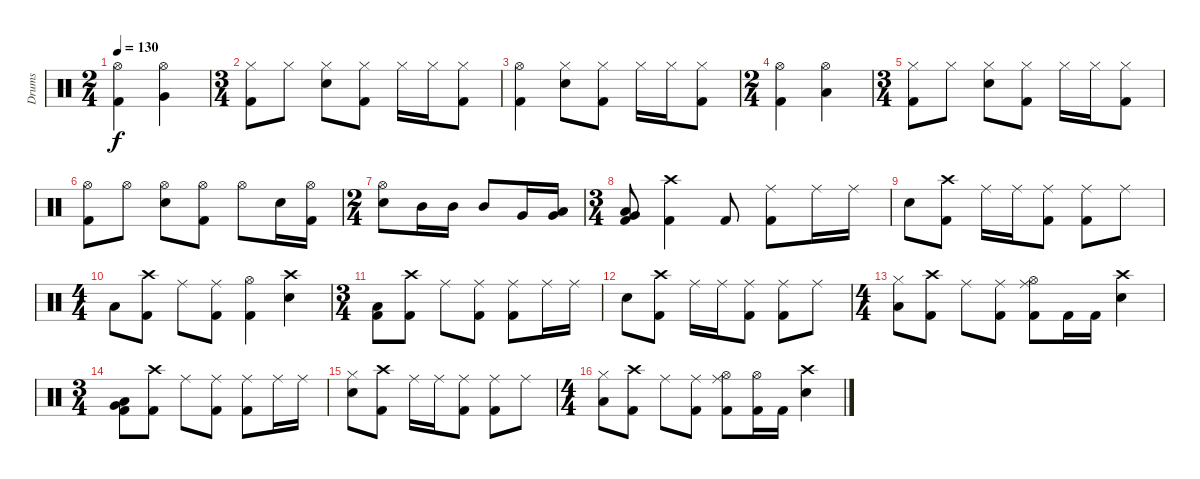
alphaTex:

\track ("Drums" "Drums") {instrument percussion}
\staff {score}
\articulation defaults
\ts (2 4)
\tempo 130
\clef neutral
\ks c
("Hi-Hat (open)" "Kick (hit) 2").4{dy f} ("Hi-Hat (open)" "Very Low Tom (hit)").4 |
\ts (3 4)
("Hi-Hat (closed)" "Kick (hit) 2").8 "Hi-Hat (closed)".8 ("Hi-Hat (closed)" "Snare (hit) 2").8 ("Hi-Hat (closed)" "Kick (hit) 2").8 "Hi-Hat (closed)".16 "Hi-Hat (closed)".16 ("Hi-Hat (closed)" "Kick (hit) 2").8 |
("Hi-Hat (open)" "Kick (hit) 2").4 ("Hi-Hat (closed)" "Snare (hit) 2").8 ("Hi-Hat (closed)" "Kick (hit) 2").8 "Hi-Hat (closed)".16 "Hi-Hat (closed)".16 ("Hi-Hat (closed)" "Kick (hit) 2").8 |
\ts (2 4)
("Hi-Hat (open)" "Kick (hit) 2").4 ("Hi-Hat (open)" "Low Floor Tom (hit)").4 |
\ts (3 4)
("Hi-Hat (closed)" "Kick (hit) 2").8 "Hi-Hat (closed)".8 ("Hi-Hat (closed)" "Snare (hit) 2").8 ("Hi-Hat (closed)" "Kick (hit) 2").8 "Hi-Hat (closed)".16 "Hi-Hat (closed)".16 ("Hi-Hat (closed)" "Kick (hit) 2").8 |
("Hi-Hat (open)" "Kick (hit) 2").8 "Hi-Hat (open)".8 ("Hi-Hat (open)" "Snare (hit) 2").8 ("Hi-Hat (open)" "Kick (hit) 2").8 "Hi-Hat (open)".8 "Snare (hit) 2".16 ("Hi-Hat (open)" "Kick (hit) 2").16 |
\ts (2 4)
("Hi-Hat (open)" "Snare (hit) 2").8 "Mid Tom (hit)".16 "Mid Tom (hit)".16 "Mid Tom (hit)".8 "Very Low Tom (hit)".16 ("Low Floor Tom (hit)" "Very Low Tom (hit)").16 |
\ts (3 4)
("Low Floor Tom (hit)" "Very Low Tom (hit)" "Kick (hit) 2").8 ("Crash high (hit)" "Kick (hit) 2").4 "Kick (hit) 2".8 ("Ride (middle)" "Kick (hit) 2").8 "Ride (middle)".16 "Ride (middle)".16 |
"Snare (hit) 2".8 ("Crash high (hit)" "Kick (hit) 2").8 "Ride (middle)".16 "Ride (middle)".16 ("Ride (middle)" "Kick (hit) 2").8 ("Ride (middle)" "Kick (hit) 2").8 "Ride (middle)".8 |
\ts (4 4)
"Low Floor Tom (hit)".8 ("Crash high (hit)" "Kick (hit) 2").8 "Ride (middle)".8 ("Ride (middle)" "Kick (hit) 2").8 ("Hi-Hat (open)" "Kick (hit) 2").4 ("Crash high (hit)" "Snare (hit) 2").4 |
\ts (3 4)
("Low Floor Tom (hit)" "Kick (hit) 2").8 ("Crash high (hit)" "Kick (hit) 2").8 "Ride (middle)".8 ("Ride (middle)" "Kick (hit) 2").8 ("Ride (middle)" "Kick (hit) 2").8 "Ride (middle)".16 "Ride (middle)".16 |
"Snare (hit) 2".8 ("Crash high (hit)" "Kick (hit) 2").8 "Ride (middle)".16 "Ride (middle)".16 ("Ride (middle)" "Kick (hit) 2").8 ("Ride (middle)" "Kick (hit) 2").8 "Ride (middle)".8 |
\ts (4 4)
("Low Floor Tom (hit)" "Hi-Hat (closed)").8 ("Crash high (hit)" "Kick (hit) 2").8 "Ride (middle)".8 ("Ride (middle)" "Kick (hit) 2").8 ("Ride (middle)" "Hi-Hat (open)" "Kick (hit) 2").8 "Kick (hit) 2".16 "Kick (hit) 2".16 ("Crash high (hit)" "Snare (hit) 2").4 |
\ts (3 4)
("Very Low Tom (hit)" "Low Floor Tom (hit)" "Kick (hit) 2").8 ("Crash high (hit)" "Kick (hit) 2").8 "Ride (middle)".8 ("Ride (middle)" "Kick (hit) 2").8 ("Ride (middle)" "Kick (hit) 2").8 "Ride (middle)".16 "Ride (middle)".16 |
("Snare (hit) 2" "Hi-Hat (closed)").8 ("Crash high (hit)" "Kick (hit) 2").8 "Ride (middle)".16 "Ride (middle)".16 ("Ride (middle)" "Kick (hit) 2").8 ("Ride (middle)" "Kick (hit) 2").8 "Ride (middle)".8 |
\ts (4 4)
("Low Floor Tom (hit)" "Hi-Hat (closed)").8 ("Crash high (hit)" "Kick (hit) 2").8 "Ride (middle)".8 ("Ride (middle)" "Kick (hit) 2").8 ("Ride (middle)" "Hi-Hat (open)" "Kick (hit) 2").8 ("Hi-Hat (open)" "Kick (hit) 2").16 "Kick (hit) 2".16 ("Crash high (hit)" "Snare (hit) 2").4
